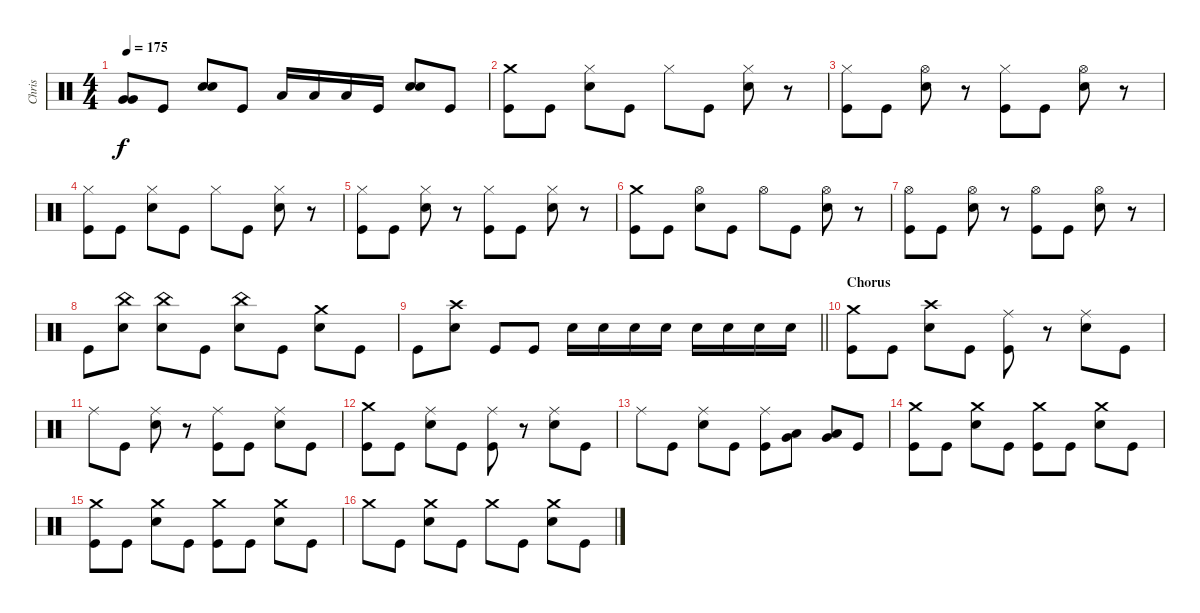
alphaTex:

\track ("Chris" "Chris") {instrument percussion}
\staff {score}
\articulation defaults
\ts (4 4)
\tempo 175
\clef neutral
\ks c
("Very Low Tom (hit)" "Very Low Tom (hit)").8{bd 120 dy f} "Kick (hit)".8 ("Snare (hit) 2" "Snare (hit) 2").8{bd 120} "Kick (hit)".8 "Low Floor Tom (hit)".16 "Low Floor Tom (hit)".16 "Low Floor Tom (hit)".16 "Kick (hit)".16 ("Snare (hit) 2" "Snare (hit) 2").8{bd 120} "Kick (hit)".8 |
("Crash medium (hit)" "Kick (hit)").8 "Kick (hit)".8 ("Hi-Hat (closed)" "Snare (hit) 2").8 "Kick (hit)".8 "Hi-Hat (closed)".8 "Kick (hit)".8 ("Hi-Hat (closed)" "Snare (hit) 2").8 r.8 |
("Hi-Hat (closed)" "Kick (hit)").8 "Kick (hit)".8 ("Hi-Hat (open)" "Snare (hit) 2").8 r.8 ("Hi-Hat (closed)" "Kick (hit)").8 "Kick (hit)".8 ("Hi-Hat (open)" "Snare (hit) 2").8 r.8 |
("Hi-Hat (closed)" "Kick (hit)").8 "Kick (hit)".8 ("Hi-Hat (closed)" "Snare (hit) 2").8 "Kick (hit)".8 "Hi-Hat (closed)".8 "Kick (hit)".8 ("Hi-Hat (closed)" "Snare (hit) 2").8 r.8 |
("Hi-Hat (closed)" "Kick (hit)").8 "Kick (hit)".8 ("Hi-Hat (closed)" "Snare (hit) 2").8 r.8 ("Hi-Hat (closed)" "Kick (hit)").8 "Kick (hit)".8 ("Hi-Hat (closed)" "Snare (hit) 2").8 r.8 |
("Crash medium (hit)" "Kick (hit)").8 "Kick (hit)".8 ("Hi-Hat (open)" "Snare (hit) 2").8 "Kick (hit)".8 "Hi-Hat (open)".8 "Kick (hit)".8 ("Hi-Hat (open)" "Snare (hit) 2").8 r.8 |
("Hi-Hat (open)" "Kick (hit)").8 "Kick (hit)".8 ("Hi-Hat (open)" "Snare (hit) 2").8 r.8 ("Hi-Hat (open)" "Kick (hit)").8 "Kick (hit)".8 ("Hi-Hat (open)" "Snare (hit) 2").8 r.8 |
"Kick (hit)".8 ("China (hit)" "Snare (hit) 2").8 ("China (hit)" "Snare (hit) 2").8 "Kick (hit)".8 ("China (hit)" "Snare (hit) 2").8 "Kick (hit)".8 ("Crash medium (hit)" "Snare (hit) 2").8 "Kick (hit)".8 |
\barLineRight lightlight "Kick (hit)".8
("Crash high (hit)" "Snare (hit) 2").8 "Kick (hit)".8 "Kick (hit)".8 "Snare (hit) 2".16 "Snare (hit) 2".16 "Snare (hit) 2".16 "Snare (hit) 2".16 "Snare (hit) 2".16 "Snare (hit) 2".16 "Snare (hit) 2".16 "Snare (hit) 2".16 |
\section ("" "Chorus")
("Crash medium (hit)" "Kick (hit)").8 "Kick (hit)".8 ("Crash high (hit)" "Snare (hit) 2").8 "Kick (hit)".8 ("Ride (middle)" "Kick (hit)").8 r.8 ("Ride (middle)" "Snare (hit) 2").8 "Kick (hit)".8 |
"Ride (middle)".8 "Kick (hit)".8 ("Ride (middle)" "Snare (hit) 2").8 r.8 ("Ride (middle)" "Kick (hit)").8 "Kick (hit)".8 ("Ride (middle)" "Snare (hit) 2").8 "Kick (hit)".8 |
("Crash medium (hit)" "Kick (hit)").8 "Kick (hit)".8 ("Ride (middle)" "Snare (hit) 2").8 "Kick (hit)".8 ("Ride (middle)" "Kick (hit)").8 r.8 ("Ride (middle)" "Snare (hit) 2").8 "Kick (hit)".8 |
"Ride (middle)".8 "Kick (hit)".8 ("Ride (middle)" "Snare (hit) 2").8 "Kick (hit)".8 ("Ride (middle)" "Kick (hit)").8 ("Very Low Tom (hit)" "Low Floor Tom (hit)").8 ("Very Low Tom (hit)" "Low Floor Tom (hit)").8 "Kick (hit)".8 |
("Crash medium (hit)" "Kick (hit)").8 "Kick (hit)".8 ("Crash medium (hit)" "Snare (hit) 2").8 "Kick (hit)".8 ("Crash medium (hit)" "Kick (hit)").8 "Kick (hit)".8 ("Crash medium (hit)" "Snare (hit) 2").8 "Kick (hit)".8 |
("Crash medium (hit)" "Kick (hit)").8 "Kick (hit)".8 ("Crash medium (hit)" "Snare (hit) 2").8 "Kick (hit)".8 ("Crash medium (hit)" "Kick (hit)").8 "Kick (hit)".8 ("Crash medium (hit)" "Snare (hit) 2").8 "Kick (hit)".8 |
"Crash medium (hit)".8 "Kick (hit)".8 ("Crash medium (hit)" "Snare (hit) 2").8 "Kick (hit)".8 "Crash medium (hit)".8 "Kick (hit)".8 ("Crash medium (hit)" "Snare (hit) 2").8 "Kick (hit)".8
